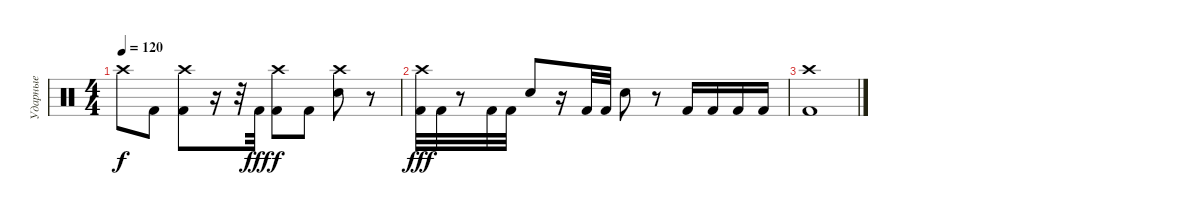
\track ("Ударные" "Ударные") {instrument percussion}
\staff {score}
\articulation defaults
\ts (4 4)
\tempo 120
\clef neutral
\ks c "Crash high (hit)".8{dy f} "Kick (hit) 2".8
("Crash high (hit)" "Kick (hit) 2").8 r.16 r.32 "Kick (hit) 2".32{dy fff} ("Crash high (hit)" "Kick (hit) 2").8{dy f} "Kick (hit) 2".8 ("Crash high (hit)" "Electric Snare (hit)").8 r.8 |
("Crash high (hit)" "Kick (hit) 2").32{dy fff} "Kick (hit) 2".32 r.8 "Kick (hit) 2".32 "Kick (hit) 2".32 "Electric Snare (hit)".8 r.16 "Kick (hit) 2".32 "Kick (hit) 2".32 "Electric Snare (hit)".8 r.8 "Kick (hit) 2".16 "Kick (hit) 2".16 "Kick (hit) 2".16 "Kick (hit) 2".16 |
("Crash high (hit)" "Kick (hit) 2").1
